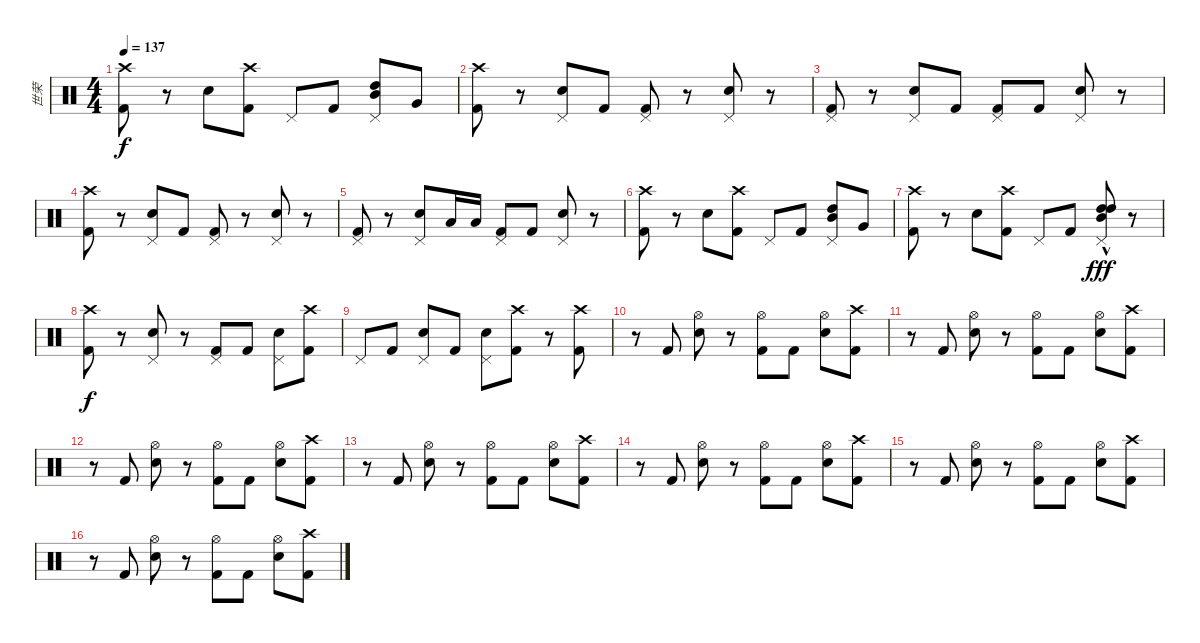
\track ("世荣" "世荣") {instrument percussion}
\staff {score}
\articulation defaults
\ts (4 4)
\tempo 137
\clef neutral
\ks c
("Crash high (hit)" "Kick (hit) 2").8{dy f} r.8 "Electric Snare (hit)".8 ("Crash high (hit)" "Kick (hit) 2").8 "Pedal Hi-Hat (hit)".8 "Kick (hit) 2".8 ("Pedal Hi-Hat (hit)" "Mid Tom (hit)" "High Tom (hit)").8 "Very Low Tom (hit)".8 |
("Crash high (hit)" "Kick (hit) 2").8 r.8 ("Pedal Hi-Hat (hit)" "Electric Snare (hit)").8 "Kick (hit) 2".8 ("Pedal Hi-Hat (hit)" "Kick (hit) 2").8 r.8 ("Pedal Hi-Hat (hit)" "Electric Snare (hit)").8 r.8 |
("Pedal Hi-Hat (hit)" "Kick (hit) 2").8 r.8 ("Pedal Hi-Hat (hit)" "Electric Snare (hit)").8 "Kick (hit) 2".8 ("Pedal Hi-Hat (hit)" "Kick (hit) 2").8 "Kick (hit) 2".8 ("Pedal Hi-Hat (hit)" "Electric Snare (hit)").8 r.8 |
("Crash high (hit)" "Kick (hit) 2").8 r.8 ("Pedal Hi-Hat (hit)" "Electric Snare (hit)").8 "Kick (hit) 2".8 ("Pedal Hi-Hat (hit)" "Kick (hit) 2").8 r.8 ("Pedal Hi-Hat (hit)" "Electric Snare (hit)").8 r.8 |
("Pedal Hi-Hat (hit)" "Kick (hit) 2").8 r.8 ("Pedal Hi-Hat (hit)" "Electric Snare (hit)").8 "Low Tom (hit)".16 "Low Tom (hit)".16 ("Pedal Hi-Hat (hit)" "Kick (hit) 2").8 "Kick (hit) 2".8 ("Pedal Hi-Hat (hit)" "Electric Snare (hit)").8 r.8 |
("Crash high (hit)" "Kick (hit) 2").8 r.8 "Electric Snare (hit)".8 ("Crash high (hit)" "Kick (hit) 2").8 "Pedal Hi-Hat (hit)".8 "Kick (hit) 2".8 ("Pedal Hi-Hat (hit)" "Mid Tom (hit)" "High Tom (hit)").8 "Very Low Tom (hit)".8 |
("Crash high (hit)" "Kick (hit) 2").8 r.8 "Electric Snare (hit)".8 ("Crash high (hit)" "Kick (hit) 2").8 "Pedal Hi-Hat (hit)".8 "Kick (hit) 2".8 ("Pedal Hi-Hat (hit)" "High Tom (hit)"{hac} "High Tom (hit)"{hac} "Mid Tom (hit)"{hac}).8{dy fff} r.8 |
("Crash high (hit)" "Kick (hit) 2").8{dy f} r.8 ("Pedal Hi-Hat (hit)" "Electric Snare (hit)").8 r.8 ("Pedal Hi-Hat (hit)" "Kick (hit) 2").8 "Kick (hit) 2".8 ("Pedal Hi-Hat (hit)" "Electric Snare (hit)").8 ("Crash high (hit)" "Kick (hit) 2").8 |
"Pedal Hi-Hat (hit)".8 "Kick (hit) 2".8 ("Pedal Hi-Hat (hit)" "Electric Snare (hit)").8 "Kick (hit) 2".8 ("Pedal Hi-Hat (hit)" "Electric Snare (hit)").8 ("Crash high (hit)" "Kick (hit) 2").8 r.8 ("Crash high (hit)" "Kick (hit) 2").8 |
r.8 "Kick (hit) 2".8 ("Hi-Hat (open)" "Electric Snare (hit)").8 r.8 ("Hi-Hat (open)" "Kick (hit) 2").8 "Kick (hit) 2".8 ("Hi-Hat (open)" "Electric Snare (hit)").8 ("Crash high (hit)" "Kick (hit) 2").8 |
r.8 "Kick (hit) 2".8 ("Hi-Hat (open)" "Electric Snare (hit)").8 r.8 ("Hi-Hat (open)" "Kick (hit) 2").8 "Kick (hit) 2".8 ("Hi-Hat (open)" "Electric Snare (hit)").8 ("Crash high (hit)" "Kick (hit) 2").8 |
r.8 "Kick (hit) 2".8 ("Hi-Hat (open)" "Electric Snare (hit)").8 r.8 ("Hi-Hat (open)" "Kick (hit) 2").8 "Kick (hit) 2".8 ("Hi-Hat (open)" "Electric Snare (hit)").8 ("Crash high (hit)" "Kick (hit) 2").8 |
r.8 "Kick (hit) 2".8 ("Hi-Hat (open)" "Electric Snare (hit)").8 r.8 ("Hi-Hat (open)" "Kick (hit) 2").8 "Kick (hit) 2".8 ("Hi-Hat (open)" "Electric Snare (hit)").8 ("Crash high (hit)" "Kick (hit) 2").8 |
r.8 "Kick (hit) 2".8 ("Hi-Hat (open)" "Electric Snare (hit)").8 r.8 ("Hi-Hat (open)" "Kick (hit) 2").8 "Kick (hit) 2".8 ("Hi-Hat (open)" "Electric Snare (hit)").8 ("Crash high (hit)" "Kick (hit) 2").8 |
r.8 "Kick (hit) 2".8 ("Hi-Hat (open)" "Electric Snare (hit)").8 r.8 ("Hi-Hat (open)" "Kick (hit) 2").8 "Kick (hit) 2".8 ("Hi-Hat (open)" "Electric Snare (hit)").8 ("Crash high (hit)" "Kick (hit) 2").8 |
r.8 "Kick (hit) 2".8 ("Hi-Hat (open)" "Electric Snare (hit)").8 r.8 ("Hi-Hat (open)" "Kick (hit) 2").8 "Kick (hit) 2".8 ("Hi-Hat (open)" "Electric Snare (hit)").8 ("Crash high (hit)" "Kick (hit) 2").8
